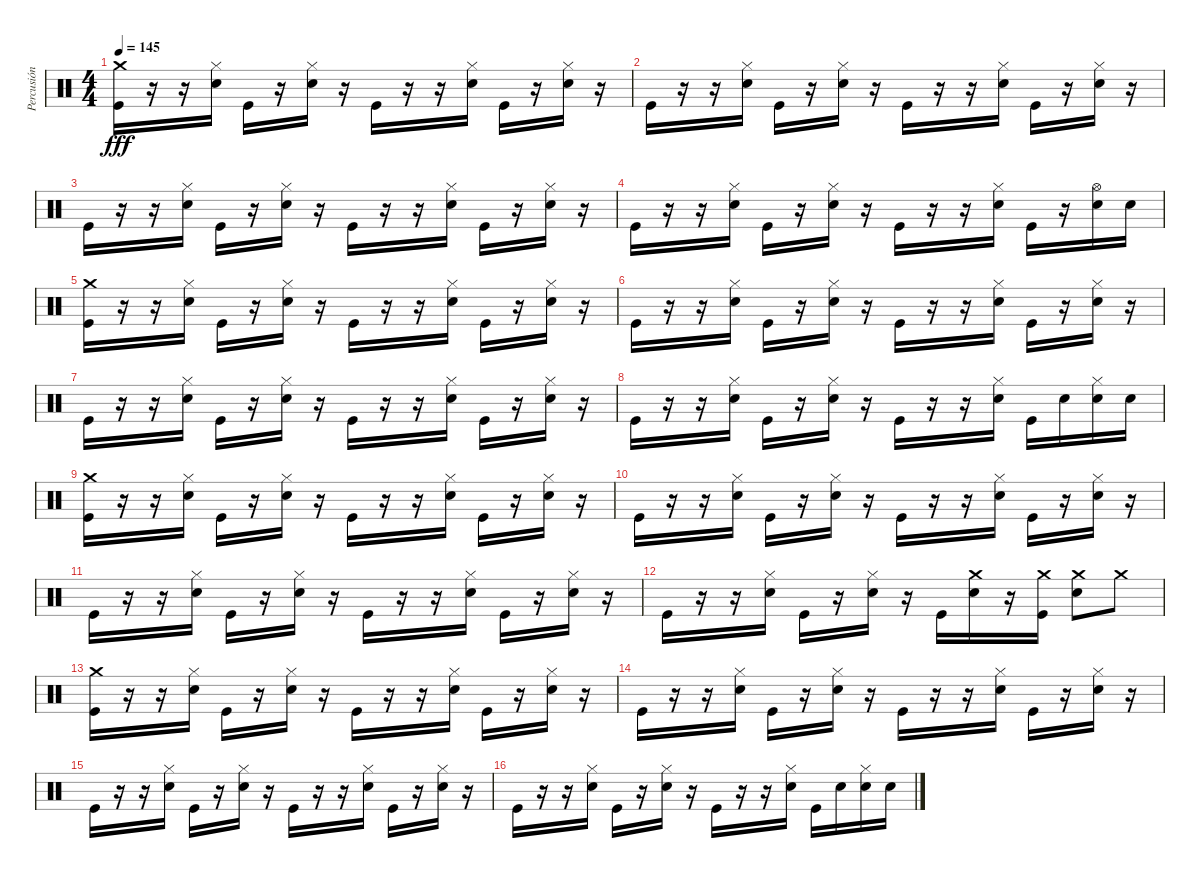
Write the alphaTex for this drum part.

\track ("Percusión" "Percusión") {instrument percussion}
\staff {score}
\articulation defaults
\ts (4 4)
\tempo 145
\clef neutral
\ks c
("Crash medium (hit)" "Kick (hit)").16{dy fff} r.16 r.16 ("Hi-Hat (closed)" "Electric Snare (hit)").16 "Kick (hit)".16 r.16 ("Hi-Hat (closed)" "Electric Snare (hit)").16 r.16 "Kick (hit)".16 r.16 r.16 ("Hi-Hat (closed)" "Electric Snare (hit)").16 "Kick (hit)".16 r.16 ("Hi-Hat (closed)" "Electric Snare (hit)").16 r.16 |
"Kick (hit)".16 r.16 r.16 ("Hi-Hat (closed)" "Electric Snare (hit)").16 "Kick (hit)".16 r.16 ("Hi-Hat (closed)" "Electric Snare (hit)").16 r.16 "Kick (hit)".16 r.16 r.16 ("Hi-Hat (closed)" "Electric Snare (hit)").16 "Kick (hit)".16 r.16 ("Hi-Hat (closed)" "Electric Snare (hit)").16 r.16 |
"Kick (hit)".16 r.16 r.16 ("Hi-Hat (closed)" "Electric Snare (hit)").16 "Kick (hit)".16 r.16 ("Hi-Hat (closed)" "Electric Snare (hit)").16 r.16 "Kick (hit)".16 r.16 r.16 ("Hi-Hat (closed)" "Electric Snare (hit)").16 "Kick (hit)".16 r.16 ("Hi-Hat (closed)" "Electric Snare (hit)").16 r.16 |
"Kick (hit)".16 r.16 r.16 ("Hi-Hat (closed)" "Electric Snare (hit)").16 "Kick (hit)".16 r.16 ("Hi-Hat (closed)" "Electric Snare (hit)").16 r.16 "Kick (hit)".16 r.16 r.16 ("Hi-Hat (closed)" "Electric Snare (hit)").16 "Kick (hit)".16 r.16 ("Hi-Hat (open)" "Electric Snare (hit)").16 "Electric Snare (hit)".16 |
("Crash medium (hit)" "Kick (hit)").16 r.16 r.16 ("Hi-Hat (closed)" "Electric Snare (hit)").16 "Kick (hit)".16 r.16 ("Hi-Hat (closed)" "Electric Snare (hit)").16 r.16 "Kick (hit)".16 r.16 r.16 ("Hi-Hat (closed)" "Electric Snare (hit)").16 "Kick (hit)".16 r.16 ("Hi-Hat (closed)" "Electric Snare (hit)").16 r.16 |
"Kick (hit)".16 r.16 r.16 ("Hi-Hat (closed)" "Electric Snare (hit)").16 "Kick (hit)".16 r.16 ("Hi-Hat (closed)" "Electric Snare (hit)").16 r.16 "Kick (hit)".16 r.16 r.16 ("Hi-Hat (closed)" "Electric Snare (hit)").16 "Kick (hit)".16 r.16 ("Hi-Hat (closed)" "Electric Snare (hit)").16 r.16 |
"Kick (hit)".16 r.16 r.16 ("Hi-Hat (closed)" "Electric Snare (hit)").16 "Kick (hit)".16 r.16 ("Hi-Hat (closed)" "Electric Snare (hit)").16 r.16 "Kick (hit)".16 r.16 r.16 ("Hi-Hat (closed)" "Electric Snare (hit)").16 "Kick (hit)".16 r.16 ("Hi-Hat (closed)" "Electric Snare (hit)").16 r.16 |
"Kick (hit)".16 r.16 r.16 ("Hi-Hat (closed)" "Electric Snare (hit)").16 "Kick (hit)".16 r.16 ("Hi-Hat (closed)" "Electric Snare (hit)").16 r.16 "Kick (hit)".16 r.16 r.16 ("Hi-Hat (closed)" "Electric Snare (hit)").16 "Kick (hit)".16 "Electric Snare (hit)".16 ("Hi-Hat (closed)" "Electric Snare (hit)").16 "Electric Snare (hit)".16 |
("Crash medium (hit)" "Kick (hit)").16 r.16 r.16 ("Hi-Hat (closed)" "Electric Snare (hit)").16 "Kick (hit)".16 r.16 ("Hi-Hat (closed)" "Electric Snare (hit)").16 r.16 "Kick (hit)".16 r.16 r.16 ("Hi-Hat (closed)" "Electric Snare (hit)").16 "Kick (hit)".16 r.16 ("Hi-Hat (closed)" "Electric Snare (hit)").16 r.16 |
"Kick (hit)".16 r.16 r.16 ("Hi-Hat (closed)" "Electric Snare (hit)").16 "Kick (hit)".16 r.16 ("Hi-Hat (closed)" "Electric Snare (hit)").16 r.16 "Kick (hit)".16 r.16 r.16 ("Hi-Hat (closed)" "Electric Snare (hit)").16 "Kick (hit)".16 r.16 ("Hi-Hat (closed)" "Electric Snare (hit)").16 r.16 |
"Kick (hit)".16 r.16 r.16 ("Hi-Hat (closed)" "Electric Snare (hit)").16 "Kick (hit)".16 r.16 ("Hi-Hat (closed)" "Electric Snare (hit)").16 r.16 "Kick (hit)".16 r.16 r.16 ("Hi-Hat (closed)" "Electric Snare (hit)").16 "Kick (hit)".16 r.16 ("Hi-Hat (closed)" "Electric Snare (hit)").16 r.16 |
"Kick (hit)".16 r.16 r.16 ("Hi-Hat (closed)" "Electric Snare (hit)").16 "Kick (hit)".16 r.16 ("Hi-Hat (closed)" "Electric Snare (hit)").16 r.16 "Kick (hit)".16 ("Crash medium (hit)" "Electric Snare (hit)").16 r.16 ("Crash medium (hit)" "Kick (hit)").16 ("Crash medium (hit)" "Electric Snare (hit)").8 "Crash medium (hit)".8 |
("Crash medium (hit)" "Kick (hit)").16 r.16 r.16 ("Hi-Hat (closed)" "Electric Snare (hit)").16 "Kick (hit)".16 r.16 ("Hi-Hat (closed)" "Electric Snare (hit)").16 r.16 "Kick (hit)".16 r.16 r.16 ("Hi-Hat (closed)" "Electric Snare (hit)").16 "Kick (hit)".16 r.16 ("Hi-Hat (closed)" "Electric Snare (hit)").16 r.16 |
"Kick (hit)".16 r.16 r.16 ("Hi-Hat (closed)" "Electric Snare (hit)").16 "Kick (hit)".16 r.16 ("Hi-Hat (closed)" "Electric Snare (hit)").16 r.16 "Kick (hit)".16 r.16 r.16 ("Hi-Hat (closed)" "Electric Snare (hit)").16 "Kick (hit)".16 r.16 ("Hi-Hat (closed)" "Electric Snare (hit)").16 r.16 |
"Kick (hit)".16 r.16 r.16 ("Hi-Hat (closed)" "Electric Snare (hit)").16 "Kick (hit)".16 r.16 ("Hi-Hat (closed)" "Electric Snare (hit)").16 r.16 "Kick (hit)".16 r.16 r.16 ("Hi-Hat (closed)" "Electric Snare (hit)").16 "Kick (hit)".16 r.16 ("Hi-Hat (closed)" "Electric Snare (hit)").16 r.16 |
"Kick (hit)".16 r.16 r.16 ("Hi-Hat (closed)" "Electric Snare (hit)").16 "Kick (hit)".16 r.16 ("Hi-Hat (closed)" "Electric Snare (hit)").16 r.16 "Kick (hit)".16 r.16 r.16 ("Hi-Hat (closed)" "Electric Snare (hit)").16 "Kick (hit)".16 "Electric Snare (hit)".16 ("Hi-Hat (closed)" "Electric Snare (hit)").16 "Electric Snare (hit)".16
